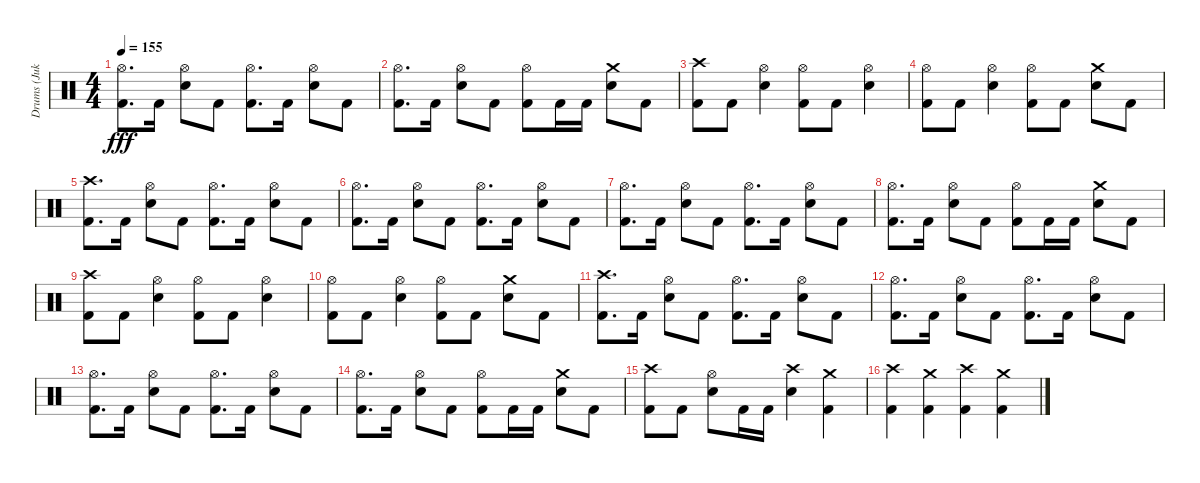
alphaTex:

\track ("Drums (Jukka)" "Drums (Juk") {instrument percussion}
\staff {score}
\articulation defaults
\ts (4 4)
\tempo 155
\clef neutral
\ks c
("Kick (hit) 2" "Hi-Hat (open)").8{d dy fff} "Kick (hit) 2".16 ("Snare (hit) 2" "Hi-Hat (open)").8 "Kick (hit) 2".8 ("Kick (hit) 2" "Hi-Hat (open)").8{d} "Kick (hit) 2".16 ("Snare (hit) 2" "Hi-Hat (open)").8 "Kick (hit) 2".8 |
("Kick (hit) 2" "Hi-Hat (open)").8{d} "Kick (hit) 2".16 ("Snare (hit) 2" "Hi-Hat (open)").8 "Kick (hit) 2".8 ("Kick (hit) 2" "Hi-Hat (open)").8 "Kick (hit) 2".16 "Kick (hit) 2".16 ("Snare (hit) 2" "Crash medium (hit)").8 "Kick (hit) 2".8 |
("Kick (hit) 2" "Crash high (hit)").8 "Kick (hit) 2".8 ("Snare (hit) 2" "Hi-Hat (open)").4 ("Kick (hit) 2" "Hi-Hat (open)").8 "Kick (hit) 2".8 ("Snare (hit) 2" "Hi-Hat (open)").4 |
("Kick (hit) 2" "Hi-Hat (open)").8 "Kick (hit) 2".8 ("Snare (hit) 2" "Hi-Hat (open)").4 ("Kick (hit) 2" "Hi-Hat (open)").8 "Kick (hit) 2".8 ("Snare (hit) 2" "Crash medium (hit)").8 "Kick (hit) 2".8 |
("Kick (hit) 2" "Crash high (hit)").8{d} "Kick (hit) 2".16 ("Snare (hit) 2" "Hi-Hat (open)").8 "Kick (hit) 2".8 ("Kick (hit) 2" "Hi-Hat (open)").8{d} "Kick (hit) 2".16 ("Snare (hit) 2" "Hi-Hat (open)").8 "Kick (hit) 2".8 |
("Kick (hit) 2" "Hi-Hat (open)").8{d} "Kick (hit) 2".16 ("Snare (hit) 2" "Hi-Hat (open)").8 "Kick (hit) 2".8 ("Kick (hit) 2" "Hi-Hat (open)").8{d} "Kick (hit) 2".16 ("Snare (hit) 2" "Hi-Hat (open)").8 "Kick (hit) 2".8 |
("Kick (hit) 2" "Hi-Hat (open)").8{d} "Kick (hit) 2".16 ("Snare (hit) 2" "Hi-Hat (open)").8 "Kick (hit) 2".8 ("Kick (hit) 2" "Hi-Hat (open)").8{d} "Kick (hit) 2".16 ("Snare (hit) 2" "Hi-Hat (open)").8 "Kick (hit) 2".8 |
("Kick (hit) 2" "Hi-Hat (open)").8{d} "Kick (hit) 2".16 ("Snare (hit) 2" "Hi-Hat (open)").8 "Kick (hit) 2".8 ("Kick (hit) 2" "Hi-Hat (open)").8 "Kick (hit) 2".16 "Kick (hit) 2".16 ("Snare (hit) 2" "Crash medium (hit)").8 "Kick (hit) 2".8 |
("Kick (hit) 2" "Crash high (hit)").8 "Kick (hit) 2".8 ("Snare (hit) 2" "Hi-Hat (open)").4 ("Kick (hit) 2" "Hi-Hat (open)").8 "Kick (hit) 2".8 ("Snare (hit) 2" "Hi-Hat (open)").4 |
("Kick (hit) 2" "Hi-Hat (open)").8 "Kick (hit) 2".8 ("Snare (hit) 2" "Hi-Hat (open)").4 ("Kick (hit) 2" "Hi-Hat (open)").8 "Kick (hit) 2".8 ("Snare (hit) 2" "Crash medium (hit)").8 "Kick (hit) 2".8 |
("Kick (hit) 2" "Crash high (hit)").8{d} "Kick (hit) 2".16 ("Snare (hit) 2" "Hi-Hat (open)").8 "Kick (hit) 2".8 ("Kick (hit) 2" "Hi-Hat (open)").8{d} "Kick (hit) 2".16 ("Snare (hit) 2" "Hi-Hat (open)").8 "Kick (hit) 2".8 |
("Kick (hit) 2" "Hi-Hat (open)").8{d} "Kick (hit) 2".16 ("Snare (hit) 2" "Hi-Hat (open)").8 "Kick (hit) 2".8 ("Kick (hit) 2" "Hi-Hat (open)").8{d} "Kick (hit) 2".16 ("Snare (hit) 2" "Hi-Hat (open)").8 "Kick (hit) 2".8 |
("Kick (hit) 2" "Hi-Hat (open)").8{d} "Kick (hit) 2".16 ("Snare (hit) 2" "Hi-Hat (open)").8 "Kick (hit) 2".8 ("Kick (hit) 2" "Hi-Hat (open)").8{d} "Kick (hit) 2".16 ("Snare (hit) 2" "Hi-Hat (open)").8 "Kick (hit) 2".8 |
("Kick (hit) 2" "Hi-Hat (open)").8{d} "Kick (hit) 2".16 ("Snare (hit) 2" "Hi-Hat (open)").8 "Kick (hit) 2".8 ("Kick (hit) 2" "Hi-Hat (open)").8 "Kick (hit) 2".16 "Kick (hit) 2".16 ("Snare (hit) 2" "Crash medium (hit)").8 "Kick (hit) 2".8 |
("Kick (hit) 2" "Crash high (hit)").8 "Kick (hit) 2".8 ("Snare (hit) 2" "Hi-Hat (open)").8 "Kick (hit) 2".16 "Kick (hit) 2".16 ("Snare (hit) 2" "Crash high (hit)").4 ("Kick (hit) 2" "Crash medium (hit)").4 |
("Kick (hit) 2" "Crash high (hit)").4 ("Kick (hit) 2" "Crash medium (hit)").4 ("Kick (hit) 2" "Crash high (hit)").4 ("Kick (hit) 2" "Crash medium (hit)").4
